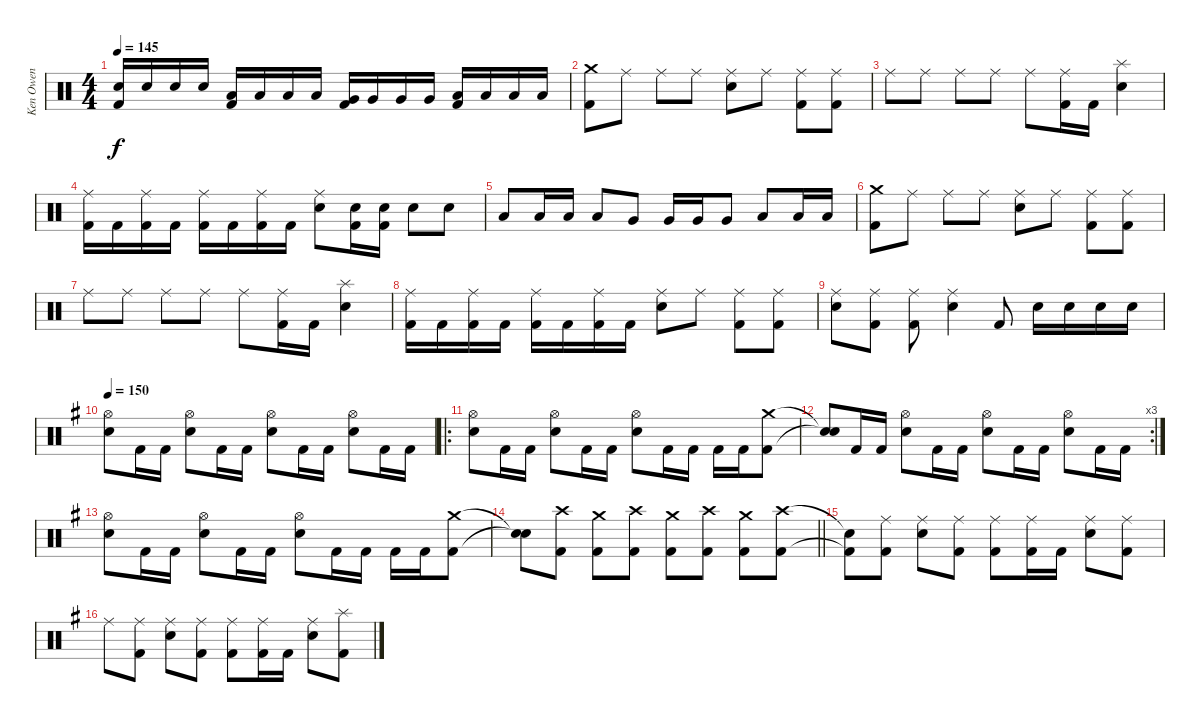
\track ("Ken Owen" "Ken Owen") {instrument percussion}
\staff {score}
\articulation defaults
\ts (4 4)
\tempo 145
\clef neutral
\ks c
("Snare (hit) 2" "Kick (hit) 2").16{dy f} "Snare (hit) 2".16 "Snare (hit) 2".16 "Snare (hit) 2".16 ("Low Tom (hit)" "Kick (hit) 2").16 "Low Tom (hit)".16 "Low Tom (hit)".16 "Low Tom (hit)".16 ("Very Low Tom (hit)" "Kick (hit) 2").16 "Very Low Tom (hit)".16 "Very Low Tom (hit)".16 "Very Low Tom (hit)".16 ("Low Floor Tom (hit)" "Kick (hit) 2").16 "Low Floor Tom (hit)".16 "Low Floor Tom (hit)".16 "Low Floor Tom (hit)".16 |
("Crash medium (hit)" "Kick (hit) 2").8 "Ride (middle)".8 "Ride (middle)".8 "Ride (middle)".8 ("Ride (middle)" "Snare (hit) 2").8 "Ride (middle)".8 ("Ride (middle)" "Kick (hit) 2").8 ("Ride (middle)" "Kick (hit) 2").8 |
"Ride (middle)".8 "Ride (middle)".8 "Ride (middle)".8 "Ride (middle)".8 "Ride (middle)".8 ("Ride (middle)" "Kick (hit) 2").16 "Kick (hit) 2".16 ("Splash (hit)" "Snare (hit) 2").4 |
("Ride (middle)" "Kick (hit) 2").16 "Kick (hit) 2".16 ("Ride (middle)" "Kick (hit) 2").16 "Kick (hit) 2".16 ("Ride (middle)" "Kick (hit) 2").16 "Kick (hit) 2".16 ("Ride (middle)" "Kick (hit) 2").16 "Kick (hit) 2".16 ("Ride (middle)" "Snare (hit) 2").8 ("Snare (hit) 2" "Kick (hit) 2").16 ("Snare (hit) 2" "Kick (hit) 2").16 "Snare (hit) 2".8 "Snare (hit) 2".8 |
"Low Tom (hit)".8 "Low Tom (hit)".16 "Low Tom (hit)".16 "Low Tom (hit)".8 "Very Low Tom (hit)".8 "Very Low Tom (hit)".16 "Very Low Tom (hit)".16 "Very Low Tom (hit)".8 "Low Floor Tom (hit)".8 "Low Floor Tom (hit)".16 "Low Floor Tom (hit)".16 |
("Crash medium (hit)" "Kick (hit) 2").8 "Ride (middle)".8 "Ride (middle)".8 "Ride (middle)".8 ("Ride (middle)" "Snare (hit) 2").8 "Ride (middle)".8 ("Ride (middle)" "Kick (hit) 2").8 ("Ride (middle)" "Kick (hit) 2").8 |
"Ride (middle)".8 "Ride (middle)".8 "Ride (middle)".8 "Ride (middle)".8 "Ride (middle)".8 ("Ride (middle)" "Kick (hit) 2").16 "Kick (hit) 2".16 ("Splash (hit)" "Snare (hit) 2").4 |
("Ride (middle)" "Kick (hit) 2").16 "Kick (hit) 2".16 ("Ride (middle)" "Kick (hit) 2").16 "Kick (hit) 2".16 ("Ride (middle)" "Kick (hit) 2").16 "Kick (hit) 2".16 ("Ride (middle)" "Kick (hit) 2").16 "Kick (hit) 2".16 ("Ride (middle)" "Snare (hit) 2").8 "Ride (middle)".8 ("Ride (middle)" "Kick (hit) 2").8 ("Ride (middle)" "Kick (hit) 2").8 |
("Ride (middle)" "Snare (hit) 2").8 ("Ride (middle)" "Kick (hit) 2").8 ("Ride (middle)" "Kick (hit) 2").8 ("Ride (middle)" "Snare (hit) 2").4 "Kick (hit) 2".8 "Snare (hit) 2".16 "Snare (hit) 2".16 "Snare (hit) 2".16 "Snare (hit) 2".16 |
\tempo 150
\ks g
("Hi-Hat (open)" "Snare (hit) 2").8 "Kick (hit) 2".16 "Kick (hit) 2".16 ("Hi-Hat (open)" "Snare (hit) 2").8 "Kick (hit) 2".16 "Kick (hit) 2".16 ("Hi-Hat (open)" "Snare (hit) 2").8 "Kick (hit) 2".16 "Kick (hit) 2".16 ("Hi-Hat (open)" "Snare (hit) 2").8 "Kick (hit) 2".16 "Kick (hit) 2".16 |
\ro
("Hi-Hat (open)" "Snare (hit) 2").8 "Kick (hit) 2".16 "Kick (hit) 2".16 ("Hi-Hat (open)" "Snare (hit) 2").8 "Kick (hit) 2".16 "Kick (hit) 2".16 ("Hi-Hat (open)" "Snare (hit) 2").8 "Kick (hit) 2".16 "Kick (hit) 2".16 "Kick (hit) 2".16 "Kick (hit) 2".16 ("Crash medium (hit)" "Kick (hit) 2").8 |
\rc 3
("Snare (hit)"{t} "Snare (hit)"{t}).8 "Kick (hit) 2".16 "Kick (hit) 2".16 ("Hi-Hat (open)" "Snare (hit) 2").8 "Kick (hit) 2".16 "Kick (hit) 2".16 ("Hi-Hat (open)" "Snare (hit) 2").8 "Kick (hit) 2".16 "Kick (hit) 2".16 ("Hi-Hat (open)" "Snare (hit) 2").8 "Kick (hit) 2".16 "Kick (hit) 2".16 |
("Hi-Hat (open)" "Snare (hit) 2").8 "Kick (hit) 2".16 "Kick (hit) 2".16 ("Hi-Hat (open)" "Snare (hit) 2").8 "Kick (hit) 2".16 "Kick (hit) 2".16 ("Hi-Hat (open)" "Snare (hit) 2").8 "Kick (hit) 2".16 "Kick (hit) 2".16 "Kick (hit) 2".16 "Kick (hit) 2".16 ("Crash medium (hit)" "Kick (hit) 2").8 |
\barLineRight lightlight
("Snare (hit)"{t} "Snare (hit)"{t}).8 ("Crash high (hit)" "Kick (hit) 2").8 ("Crash medium (hit)" "Kick (hit) 2").8 ("Crash high (hit)" "Kick (hit) 2").8 ("Crash medium (hit)" "Kick (hit) 2").8 ("Crash high (hit)" "Kick (hit) 2").8 ("Crash medium (hit)" "Kick (hit) 2").8 ("Crash high (hit)" "Kick (hit) 2").8 |
("Snare (hit)"{t} "Kick (hit) 2"{t}).8 ("Ride (middle)" "Kick (hit) 2").8 ("Ride (middle)" "Snare (hit) 2").8 ("Ride (middle)" "Kick (hit) 2").8 ("Ride (middle)" "Kick (hit) 2").8 ("Ride (middle)" "Kick (hit) 2").16 "Kick (hit) 2".16 ("Ride (middle)" "Snare (hit) 2").8 ("Ride (middle)" "Kick (hit) 2").8 |
"Ride (middle)".8 ("Ride (middle)" "Kick (hit) 2").8 ("Ride (middle)" "Snare (hit) 2").8 ("Ride (middle)" "Kick (hit) 2").8 ("Ride (middle)" "Kick (hit) 2").8 ("Ride (middle)" "Kick (hit) 2").16 "Kick (hit) 2".16 ("Ride (middle)" "Snare (hit) 2").8 ("Splash (hit)" "Kick (hit) 2").8
